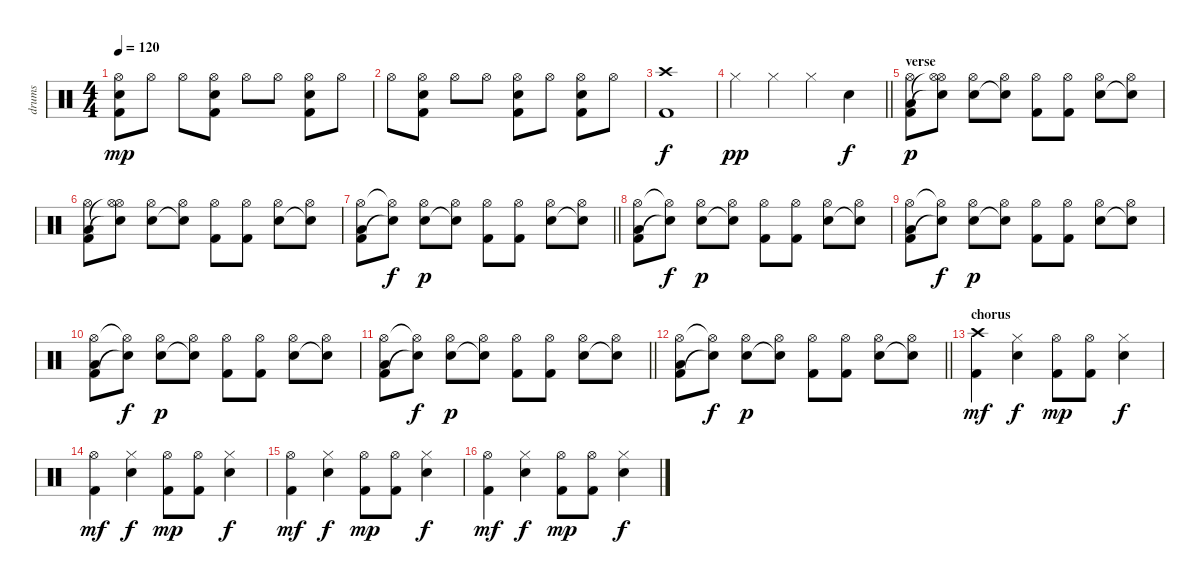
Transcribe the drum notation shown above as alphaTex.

\track ("drums" "drums") {instrument percussion}
\staff {score}
\articulation defaults
\ts (4 4)
\tempo 120
\clef neutral
\ks c
("Electric Snare (hit)" "Hi-Hat (open)" "Kick (hit) 2").8{dy mp} "Hi-Hat (open)".8 "Hi-Hat (open)".8 ("Electric Snare (hit)" "Hi-Hat (open)" "Kick (hit) 2").8 "Hi-Hat (open)".8 "Hi-Hat (open)".8 ("Electric Snare (hit)" "Hi-Hat (open)" "Kick (hit) 2").8 "Hi-Hat (open)".8 |
"Hi-Hat (open)".8 ("Electric Snare (hit)" "Hi-Hat (open)" "Kick (hit) 2").8 "Hi-Hat (open)".8 "Hi-Hat (open)".8 ("Electric Snare (hit)" "Hi-Hat (open)" "Kick (hit) 2").8 "Hi-Hat (open)".8 ("Electric Snare (hit)" "Hi-Hat (open)" "Kick (hit) 2").8 "Hi-Hat (open)".8 |
("Crash high (hit)" "Kick (hit) 2").1{dy f} |
\barLineRight lightlight "Hi-Hat (closed)".4{dy pp} "Hi-Hat (closed)".4 "Hi-Hat (closed)".4 "Electric Snare (hit)".4{dy f}
|
\section ("" "verse")
("Kick (hit) 2" "Hi-Hat (open)" "Low Floor Tom (hit)").8{dy p} ("Snare (hit)"{t} "Hi-Hat (open)" "Hi-Hat (open)"{t}).8 ("Electric Snare (hit)" "Hi-Hat (open)").8 ("Snare (hit)"{t} "Hi-Hat (open)").8 ("Kick (hit) 2" "Hi-Hat (open)").8 ("Kick (hit) 2" "Hi-Hat (open)").8 ("Electric Snare (hit)" "Hi-Hat (open)").8 ("Snare (hit)"{t} "Hi-Hat (open)").8 |
("Kick (hit) 2" "Hi-Hat (open)" "Low Floor Tom (hit)").8 ("Snare (hit)"{t} "Hi-Hat (open)" "Hi-Hat (open)"{t}).8 ("Electric Snare (hit)" "Hi-Hat (open)").8 ("Snare (hit)"{t} "Hi-Hat (open)").8 ("Kick (hit) 2" "Hi-Hat (open)").8 ("Kick (hit) 2" "Hi-Hat (open)").8 ("Electric Snare (hit)" "Hi-Hat (open)").8 ("Snare (hit)"{t} "Hi-Hat (open)").8 |
\barLineRight lightlight
("Kick (hit) 2" "Hi-Hat (open)" "Low Floor Tom (hit)").8 ("Snare (hit)"{t} "Hi-Hat (open)"{t}).8{dy f} ("Electric Snare (hit)" "Hi-Hat (open)").8{dy p} ("Snare (hit)"{t} "Hi-Hat (open)").8 ("Kick (hit) 2" "Hi-Hat (open)").8 ("Kick (hit) 2" "Hi-Hat (open)").8 ("Electric Snare (hit)" "Hi-Hat (open)").8 ("Snare (hit)"{t} "Hi-Hat (open)").8 |
("Kick (hit) 2" "Hi-Hat (open)" "Low Floor Tom (hit)").8 ("Snare (hit)"{t} "Hi-Hat (open)"{t}).8{dy f} ("Electric Snare (hit)" "Hi-Hat (open)").8{dy p} ("Snare (hit)"{t} "Hi-Hat (open)").8 ("Kick (hit) 2" "Hi-Hat (open)").8 ("Kick (hit) 2" "Hi-Hat (open)").8 ("Electric Snare (hit)" "Hi-Hat (open)").8 ("Snare (hit)"{t} "Hi-Hat (open)").8 |
("Kick (hit) 2" "Hi-Hat (open)" "Low Floor Tom (hit)").8 ("Snare (hit)"{t} "Hi-Hat (open)"{t}).8{dy f} ("Electric Snare (hit)" "Hi-Hat (open)").8{dy p} ("Snare (hit)"{t} "Hi-Hat (open)").8 ("Kick (hit) 2" "Hi-Hat (open)").8 ("Kick (hit) 2" "Hi-Hat (open)").8 ("Electric Snare (hit)" "Hi-Hat (open)").8 ("Snare (hit)"{t} "Hi-Hat (open)").8 |
("Kick (hit) 2" "Hi-Hat (open)" "Low Floor Tom (hit)").8 ("Snare (hit)"{t} "Hi-Hat (open)"{t}).8{dy f} ("Electric Snare (hit)" "Hi-Hat (open)").8{dy p} ("Snare (hit)"{t} "Hi-Hat (open)").8 ("Kick (hit) 2" "Hi-Hat (open)").8 ("Kick (hit) 2" "Hi-Hat (open)").8 ("Electric Snare (hit)" "Hi-Hat (open)").8 ("Snare (hit)"{t} "Hi-Hat (open)").8 |
\barLineRight lightlight
("Kick (hit) 2" "Hi-Hat (open)" "Low Floor Tom (hit)").8 ("Snare (hit)"{t} "Hi-Hat (open)"{t}).8{dy f} ("Electric Snare (hit)" "Hi-Hat (open)").8{dy p} ("Snare (hit)"{t} "Hi-Hat (open)").8 ("Kick (hit) 2" "Hi-Hat (open)").8 ("Kick (hit) 2" "Hi-Hat (open)").8 ("Electric Snare (hit)" "Hi-Hat (open)").8 ("Snare (hit)"{t} "Hi-Hat (open)").8 |
\barLineRight lightlight
("Kick (hit) 2" "Hi-Hat (open)" "Low Floor Tom (hit)").8 ("Snare (hit)"{t} "Hi-Hat (open)"{t}).8{dy f} ("Electric Snare (hit)" "Hi-Hat (open)").8{dy p} ("Snare (hit)"{t} "Hi-Hat (open)").8 ("Kick (hit) 2" "Hi-Hat (open)").8 ("Kick (hit) 2" "Hi-Hat (open)").8 ("Electric Snare (hit)" "Hi-Hat (open)").8 ("Snare (hit)"{t} "Hi-Hat (open)").8 |
\section ("" "chorus")
("Kick (hit) 2" "Crash high (hit)").4{dy mf} ("Electric Snare (hit)" "Hi-Hat (closed)").4{dy f} ("Kick (hit) 2" "Hi-Hat (open)").8{dy mp} ("Kick (hit) 2" "Hi-Hat (open)").8 ("Electric Snare (hit)" "Hi-Hat (closed)").4{dy f} |
("Kick (hit) 2" "Hi-Hat (open)").4{dy mf} ("Electric Snare (hit)" "Hi-Hat (closed)").4{dy f} ("Kick (hit) 2" "Hi-Hat (open)").8{dy mp} ("Kick (hit) 2" "Hi-Hat (open)").8 ("Electric Snare (hit)" "Hi-Hat (closed)").4{dy f} |
("Kick (hit) 2" "Hi-Hat (open)").4{dy mf} ("Electric Snare (hit)" "Hi-Hat (closed)").4{dy f} ("Kick (hit) 2" "Hi-Hat (open)").8{dy mp} ("Kick (hit) 2" "Hi-Hat (open)").8 ("Electric Snare (hit)" "Hi-Hat (closed)").4{dy f} |
("Kick (hit) 2" "Hi-Hat (open)").4{dy mf} ("Electric Snare (hit)" "Hi-Hat (closed)").4{dy f} ("Kick (hit) 2" "Hi-Hat (open)").8{dy mp} ("Kick (hit) 2" "Hi-Hat (open)").8 ("Electric Snare (hit)" "Hi-Hat (closed)").4{dy f}
